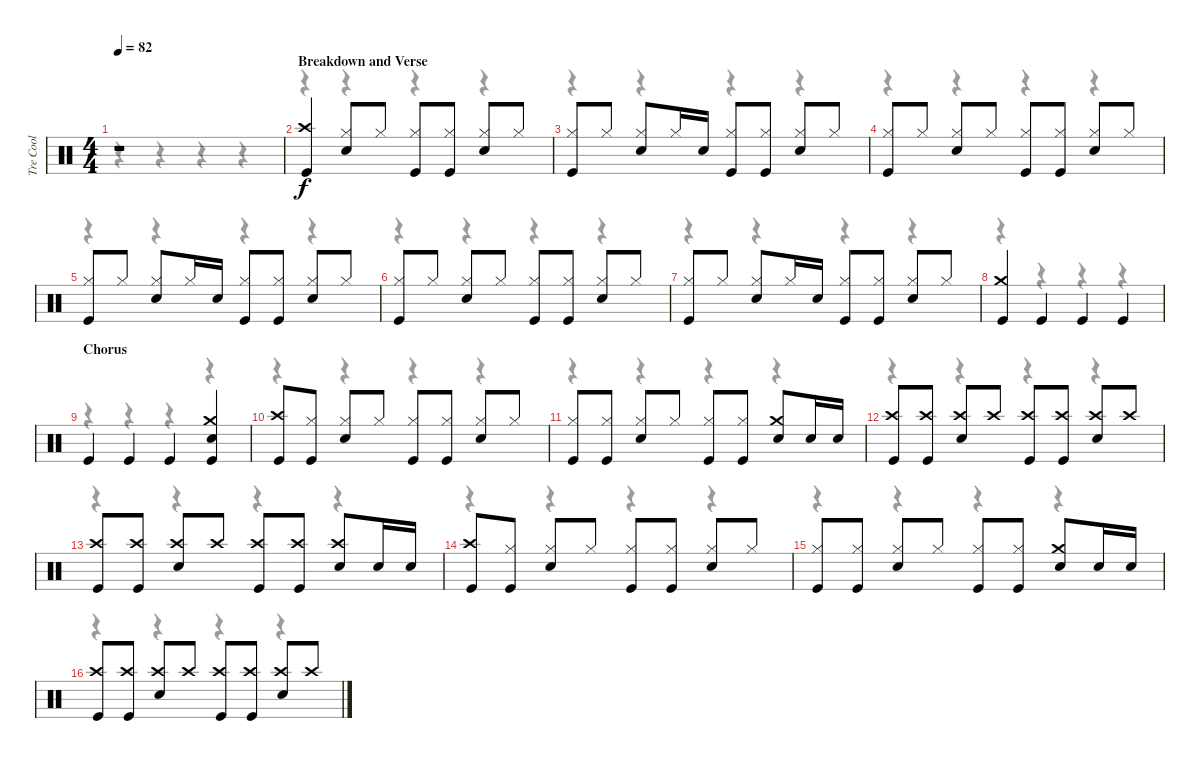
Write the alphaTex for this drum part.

\track ("Tre Cool" "Tre Cool") {instrument percussion}
\staff {score}
\articulation defaults
\voice
\ts (4 4)
\tempo 82
\clef neutral
\ks c
r.1{dy f} |
\section ("" "Breakdown and Verse ")
("Crash high (hit)" "Kick (hit)").4 ("Hi-Hat (closed)" "Snare (hit) 2").8 "Hi-Hat (closed)".8 ("Hi-Hat (closed)" "Kick (hit)").8 ("Hi-Hat (closed)" "Kick (hit)").8 ("Hi-Hat (closed)" "Snare (hit) 2").8 "Hi-Hat (closed)".8 |
("Hi-Hat (closed)" "Kick (hit)").8 "Hi-Hat (closed)".8 ("Hi-Hat (closed)" "Snare (hit) 2").8 "Hi-Hat (closed)".16 "Snare (hit) 2".16 ("Hi-Hat (closed)" "Kick (hit)").8 ("Hi-Hat (closed)" "Kick (hit)").8 ("Hi-Hat (closed)" "Snare (hit) 2").8 "Hi-Hat (closed)".8 |
("Hi-Hat (closed)" "Kick (hit)").8 "Hi-Hat (closed)".8 ("Hi-Hat (closed)" "Snare (hit) 2").8 "Hi-Hat (closed)".8 ("Hi-Hat (closed)" "Kick (hit)").8 ("Hi-Hat (closed)" "Kick (hit)").8 ("Hi-Hat (closed)" "Snare (hit) 2").8 "Hi-Hat (closed)".8 |
("Hi-Hat (closed)" "Kick (hit)").8 "Hi-Hat (closed)".8 ("Hi-Hat (closed)" "Snare (hit) 2").8 "Hi-Hat (closed)".16 "Snare (hit) 2".16 ("Hi-Hat (closed)" "Kick (hit)").8 ("Hi-Hat (closed)" "Kick (hit)").8 ("Hi-Hat (closed)" "Snare (hit) 2").8 "Hi-Hat (closed)".8 |
("Hi-Hat (closed)" "Kick (hit)").8 "Hi-Hat (closed)".8 ("Hi-Hat (closed)" "Snare (hit) 2").8 "Hi-Hat (closed)".8 ("Hi-Hat (closed)" "Kick (hit)").8 ("Hi-Hat (closed)" "Kick (hit)").8 ("Hi-Hat (closed)" "Snare (hit) 2").8 "Hi-Hat (closed)".8 |
("Hi-Hat (closed)" "Kick (hit)").8 "Hi-Hat (closed)".8 ("Hi-Hat (closed)" "Snare (hit) 2").8 "Hi-Hat (closed)".16 "Snare (hit) 2".16 ("Hi-Hat (closed)" "Kick (hit)").8 ("Hi-Hat (closed)" "Kick (hit)").8 ("Hi-Hat (closed)" "Snare (hit) 2").8 "Hi-Hat (closed)".8 |
("Crash medium (hit)" "Kick (hit)").4 "Kick (hit)".4 "Kick (hit)".4 "Kick (hit)".4 |
\section ("" "Chorus ")
"Kick (hit)".4 "Kick (hit)".4 "Kick (hit)".4 ("Crash medium (hit)" "Snare (hit) 2" "Kick (hit)").4 |
("Crash high (hit)" "Kick (hit)").8 ("Hi-Hat (closed)" "Kick (hit)").8 ("Hi-Hat (closed)" "Snare (hit) 2").8 "Hi-Hat (closed)".8 ("Hi-Hat (closed)" "Kick (hit)").8 ("Hi-Hat (closed)" "Kick (hit)").8 ("Hi-Hat (closed)" "Snare (hit) 2").8 "Hi-Hat (closed)".8 |
("Hi-Hat (closed)" "Kick (hit)").8 ("Hi-Hat (closed)" "Kick (hit)").8 ("Hi-Hat (closed)" "Snare (hit) 2").8 "Hi-Hat (closed)".8 ("Hi-Hat (closed)" "Kick (hit)").8 ("Hi-Hat (closed)" "Kick (hit)").8 ("Crash medium (hit)" "Snare (hit) 2").8 "Snare (hit) 2".16 "Snare (hit) 2".16 |
("Crash high (hit)" "Kick (hit)").8 ("Crash high (hit)" "Kick (hit)").8 ("Crash high (hit)" "Snare (hit) 2").8 "Crash high (hit)".8 ("Crash high (hit)" "Kick (hit)").8 ("Crash high (hit)" "Kick (hit)").8 ("Crash high (hit)" "Snare (hit) 2").8 "Crash high (hit)".8 |
("Crash high (hit)" "Kick (hit)").8 ("Crash high (hit)" "Kick (hit)").8 ("Crash high (hit)" "Snare (hit) 2").8 "Crash high (hit)".8 ("Crash high (hit)" "Kick (hit)").8 ("Crash high (hit)" "Kick (hit)").8 ("Crash high (hit)" "Snare (hit) 2").8 "Snare (hit) 2".16 "Snare (hit) 2".16 |
("Crash high (hit)" "Kick (hit)").8 ("Hi-Hat (closed)" "Kick (hit)").8 ("Hi-Hat (closed)" "Snare (hit) 2").8 "Hi-Hat (closed)".8 ("Hi-Hat (closed)" "Kick (hit)").8 ("Hi-Hat (closed)" "Kick (hit)").8 ("Hi-Hat (closed)" "Snare (hit) 2").8 "Hi-Hat (closed)".8 |
("Hi-Hat (closed)" "Kick (hit)").8 ("Hi-Hat (closed)" "Kick (hit)").8 ("Hi-Hat (closed)" "Snare (hit) 2").8 "Hi-Hat (closed)".8 ("Hi-Hat (closed)" "Kick (hit)").8 ("Hi-Hat (closed)" "Kick (hit)").8 ("Crash medium (hit)" "Snare (hit) 2").8 "Snare (hit) 2".16 "Snare (hit) 2".16 |
("Crash high (hit)" "Kick (hit)").8 ("Crash high (hit)" "Kick (hit)").8 ("Crash high (hit)" "Snare (hit) 2").8 "Crash high (hit)".8 ("Crash high (hit)" "Kick (hit)").8 ("Crash high (hit)" "Kick (hit)").8 ("Crash high (hit)" "Snare (hit) 2").8 "Crash high (hit)".8
\voice
\clef neutral
\ottava regular
\simile none
\ks c
r.4{dy f} r.4 r.4 r.4 |
r.4 r.4 r.4 r.4 |
r.4 r.4 r.4 r.4 |
r.4 r.4 r.4 r.4 |
r.4 r.4 r.4 r.4 |
r.4 r.4 r.4 r.4 |
r.4 r.4 r.4 r.4 |
r.4 r.4 r.4 r.4 |
r.4 r.4 r.4 r.4 |
r.4 r.4 r.4 r.4 |
r.4 r.4 r.4 r.4 |
r.4 r.4 r.4 r.4 |
r.4 r.4 r.4 r.4 |
r.4 r.4 r.4 r.4 |
r.4 r.4 r.4 r.4 |
r.4 r.4 r.4 r.4
